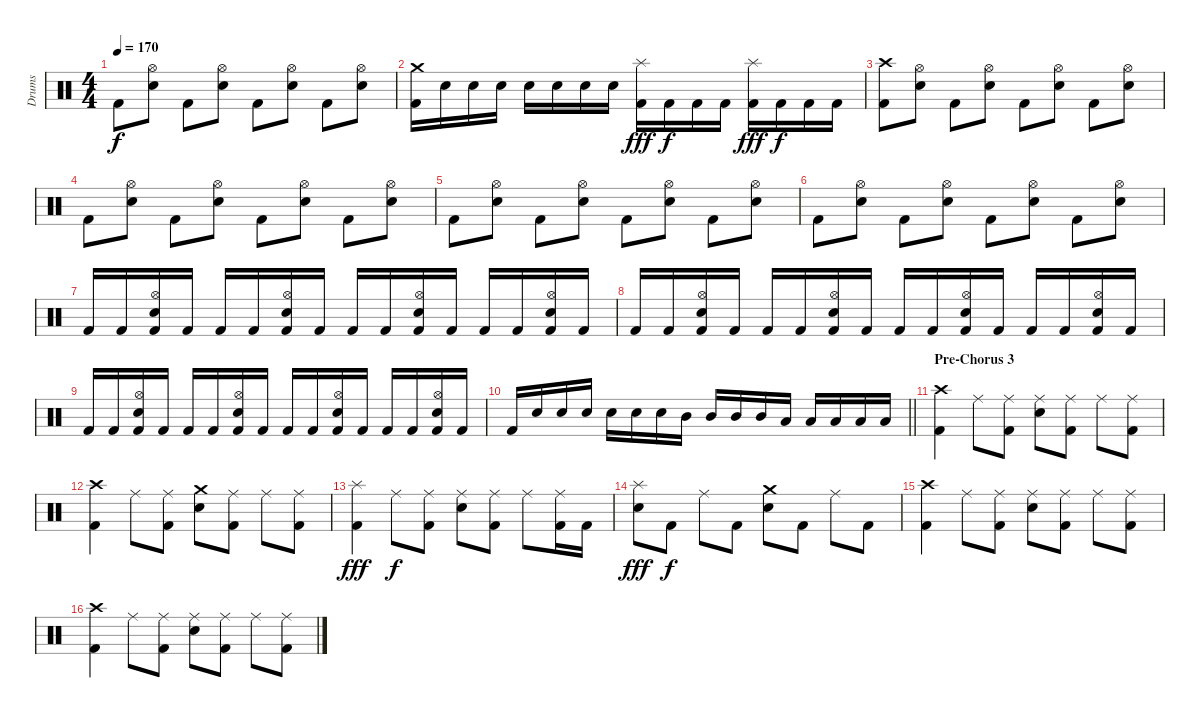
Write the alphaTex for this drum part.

\track ("Drums" "Drums") {instrument percussion}
\staff {score}
\articulation defaults
\ts (4 4)
\tempo 170
\clef neutral
\ks c "Kick (hit) 2".8{dy f}
("Hi-Hat (open)" "Electric Snare (hit)").8 "Kick (hit) 2".8 ("Hi-Hat (open)" "Electric Snare (hit)").8 "Kick (hit) 2".8 ("Hi-Hat (open)" "Electric Snare (hit)").8 "Kick (hit) 2".8 ("Hi-Hat (open)" "Electric Snare (hit)").8 |
("Crash medium (hit)" "Kick (hit) 2").16 "Electric Snare (hit)".16 "Electric Snare (hit)".16 "Electric Snare (hit)".16 "Electric Snare (hit)".16 "Electric Snare (hit)".16 "Electric Snare (hit)".16 "Electric Snare (hit)".16 ("Splash (hit)" "Kick (hit) 2").16{dy fff} "Kick (hit) 2".16{dy f} "Kick (hit) 2".16 "Kick (hit) 2".16 ("Splash (hit)" "Kick (hit) 2").16{dy fff} "Kick (hit) 2".16{dy f} "Kick (hit) 2".16 "Kick (hit) 2".16 |
("Crash high (hit)" "Kick (hit) 2").8 ("Hi-Hat (open)" "Electric Snare (hit)").8 "Kick (hit) 2".8 ("Hi-Hat (open)" "Electric Snare (hit)").8 "Kick (hit) 2".8 ("Hi-Hat (open)" "Electric Snare (hit)").8 "Kick (hit) 2".8 ("Hi-Hat (open)" "Electric Snare (hit)").8 |
"Kick (hit) 2".8 ("Hi-Hat (open)" "Electric Snare (hit)").8 "Kick (hit) 2".8 ("Hi-Hat (open)" "Electric Snare (hit)").8 "Kick (hit) 2".8 ("Hi-Hat (open)" "Electric Snare (hit)").8 "Kick (hit) 2".8 ("Hi-Hat (open)" "Electric Snare (hit)").8 |
"Kick (hit) 2".8 ("Hi-Hat (open)" "Electric Snare (hit)").8 "Kick (hit) 2".8 ("Hi-Hat (open)" "Electric Snare (hit)").8 "Kick (hit) 2".8 ("Hi-Hat (open)" "Electric Snare (hit)").8 "Kick (hit) 2".8 ("Hi-Hat (open)" "Electric Snare (hit)").8 |
"Kick (hit) 2".8 ("Hi-Hat (open)" "Electric Snare (hit)").8 "Kick (hit) 2".8 ("Hi-Hat (open)" "Electric Snare (hit)").8 "Kick (hit) 2".8 ("Hi-Hat (open)" "Electric Snare (hit)").8 "Kick (hit) 2".8 ("Hi-Hat (open)" "Electric Snare (hit)").8 |
"Kick (hit) 2".16 "Kick (hit) 2".16 ("Hi-Hat (open)" "Electric Snare (hit)" "Kick (hit) 2").16 "Kick (hit) 2".16 "Kick (hit) 2".16 "Kick (hit) 2".16 ("Hi-Hat (open)" "Electric Snare (hit)" "Kick (hit) 2").16 "Kick (hit) 2".16 "Kick (hit) 2".16 "Kick (hit) 2".16 ("Hi-Hat (open)" "Electric Snare (hit)" "Kick (hit) 2").16 "Kick (hit) 2".16 "Kick (hit) 2".16 "Kick (hit) 2".16 ("Hi-Hat (open)" "Electric Snare (hit)" "Kick (hit) 2").16 "Kick (hit) 2".16 |
"Kick (hit) 2".16 "Kick (hit) 2".16 ("Hi-Hat (open)" "Electric Snare (hit)" "Kick (hit) 2").16 "Kick (hit) 2".16 "Kick (hit) 2".16 "Kick (hit) 2".16 ("Hi-Hat (open)" "Electric Snare (hit)" "Kick (hit) 2").16 "Kick (hit) 2".16 "Kick (hit) 2".16 "Kick (hit) 2".16 ("Hi-Hat (open)" "Electric Snare (hit)" "Kick (hit) 2").16 "Kick (hit) 2".16 "Kick (hit) 2".16 "Kick (hit) 2".16 ("Hi-Hat (open)" "Electric Snare (hit)" "Kick (hit) 2").16 "Kick (hit) 2".16 |
"Kick (hit) 2".16 "Kick (hit) 2".16 ("Hi-Hat (open)" "Electric Snare (hit)" "Kick (hit) 2").16 "Kick (hit) 2".16 "Kick (hit) 2".16 "Kick (hit) 2".16 ("Hi-Hat (open)" "Electric Snare (hit)" "Kick (hit) 2").16 "Kick (hit) 2".16 "Kick (hit) 2".16 "Kick (hit) 2".16 ("Hi-Hat (open)" "Electric Snare (hit)" "Kick (hit) 2").16 "Kick (hit) 2".16 "Kick (hit) 2".16 "Kick (hit) 2".16 ("Hi-Hat (open)" "Electric Snare (hit)" "Kick (hit) 2").16 "Kick (hit) 2".16 |
\barLineRight lightlight "Kick (hit) 2".16 "Electric Snare (hit)".16 "Electric Snare (hit)".16 "Electric Snare (hit)".16 "Electric Snare (hit)".16 "Electric Snare (hit)".16 "Electric Snare (hit)".16 "Mid Tom (hit)".16 "Mid Tom (hit)".16 "Mid Tom (hit)".16 "Mid Tom (hit)".16 "Low Tom (hit)".16 "Low Tom (hit)".16 "Low Tom (hit)".16 "Low Tom (hit)".16 "Low Tom (hit)".16
|
\section ("" "Pre-Chorus 3")
("Crash high (hit)" "Kick (hit) 2").4 "Ride (middle)".8 ("Ride (middle)" "Kick (hit) 2").8 ("Ride (middle)" "Electric Snare (hit)").8 ("Ride (middle)" "Kick (hit) 2").8 "Ride (middle)".8 ("Ride (middle)" "Kick (hit) 2").8 |
("Crash high (hit)" "Kick (hit) 2").4 "Ride (middle)".8 ("Ride (middle)" "Kick (hit) 2").8 ("Crash medium (hit)" "Electric Snare (hit)").8 ("Ride (middle)" "Kick (hit) 2").8 "Ride (middle)".8 ("Ride (middle)" "Kick (hit) 2").8 |
("Splash (hit)" "Kick (hit) 2").4{dy fff} "Ride (middle)".8{dy f} ("Ride (middle)" "Kick (hit) 2").8 ("Ride (middle)" "Electric Snare (hit)").8 ("Ride (middle)" "Kick (hit) 2").8 "Ride (middle)".8 ("Ride (middle)" "Kick (hit) 2").16 "Kick (hit) 2".16 |
("Splash (hit)" "Electric Snare (hit)").8{dy fff} "Kick (hit) 2".8{dy f} "Ride (middle)".8 "Kick (hit) 2".8 ("Crash medium (hit)" "Electric Snare (hit)").8 "Kick (hit) 2".8 "Ride (middle)".8 "Kick (hit) 2".8 |
("Crash high (hit)" "Kick (hit) 2").4 "Ride (middle)".8 ("Ride (middle)" "Kick (hit) 2").8 ("Ride (middle)" "Electric Snare (hit)").8 ("Ride (middle)" "Kick (hit) 2").8 "Ride (middle)".8 ("Ride (middle)" "Kick (hit) 2").8 |
("Crash high (hit)" "Kick (hit) 2").4 "Ride (middle)".8 ("Ride (middle)" "Kick (hit) 2").8 ("Ride (middle)" "Electric Snare (hit)").8 ("Ride (middle)" "Kick (hit) 2").8 "Ride (middle)".8 ("Ride (middle)" "Kick (hit) 2").8
